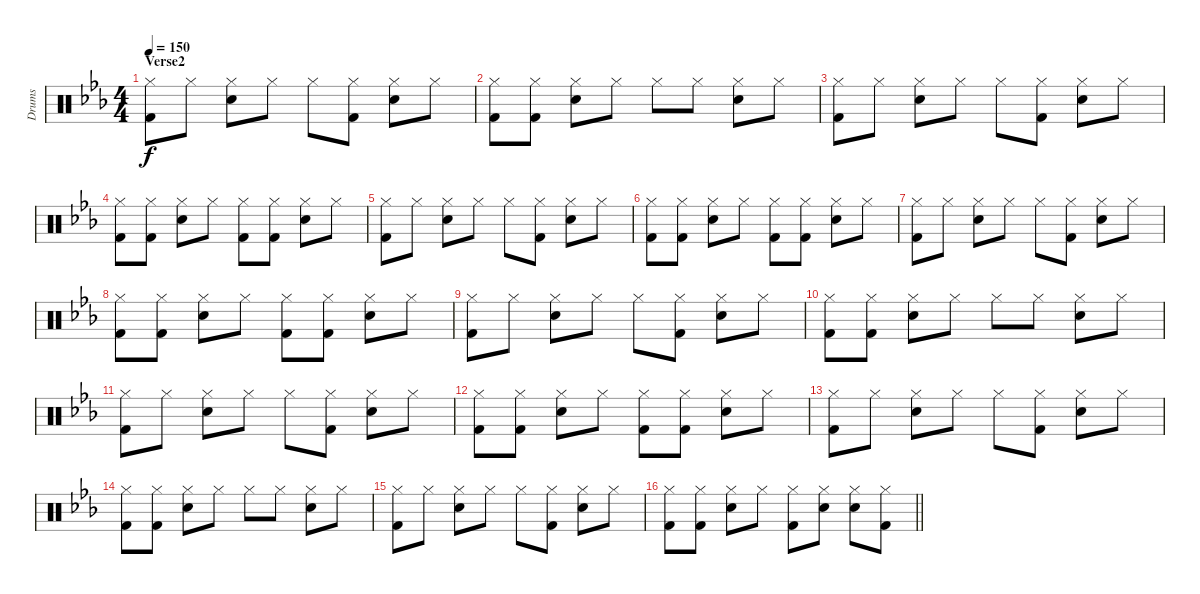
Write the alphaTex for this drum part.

\track ("Drums" "Drums") {instrument percussion}
\staff {score}
\articulation defaults
\ts (4 4)
\section ("" "Verse2")
\tempo 150
\clef neutral
\ks eb
("Hi-Hat (closed)" "Kick (hit) 2").8{dy f} "Hi-Hat (closed)".8 ("Hi-Hat (closed)" "Electric Snare (hit)").8 "Hi-Hat (closed)".8 "Hi-Hat (closed)".8 ("Hi-Hat (closed)" "Kick (hit) 2").8 ("Hi-Hat (closed)" "Electric Snare (hit)").8 "Hi-Hat (closed)".8 |
("Hi-Hat (closed)" "Kick (hit) 2").8 ("Hi-Hat (closed)" "Kick (hit) 2").8 ("Hi-Hat (closed)" "Electric Snare (hit)").8 "Hi-Hat (closed)".8 "Hi-Hat (closed)".8 "Hi-Hat (closed)".8 ("Hi-Hat (closed)" "Electric Snare (hit)").8 "Hi-Hat (closed)".8 |
("Hi-Hat (closed)" "Kick (hit) 2").8 "Hi-Hat (closed)".8 ("Hi-Hat (closed)" "Electric Snare (hit)").8 "Hi-Hat (closed)".8 "Hi-Hat (closed)".8 ("Hi-Hat (closed)" "Kick (hit) 2").8 ("Hi-Hat (closed)" "Electric Snare (hit)").8 "Hi-Hat (closed)".8 |
("Hi-Hat (closed)" "Kick (hit) 2").8 ("Hi-Hat (closed)" "Kick (hit) 2").8 ("Hi-Hat (closed)" "Electric Snare (hit)").8 "Hi-Hat (closed)".8 ("Hi-Hat (closed)" "Kick (hit) 2").8 ("Hi-Hat (closed)" "Kick (hit) 2").8 ("Hi-Hat (closed)" "Electric Snare (hit)").8 "Hi-Hat (closed)".8 |
("Hi-Hat (closed)" "Kick (hit) 2").8 "Hi-Hat (closed)".8 ("Hi-Hat (closed)" "Electric Snare (hit)").8 "Hi-Hat (closed)".8 "Hi-Hat (closed)".8 ("Hi-Hat (closed)" "Kick (hit) 2").8 ("Hi-Hat (closed)" "Electric Snare (hit)").8 "Hi-Hat (closed)".8 |
("Hi-Hat (closed)" "Kick (hit) 2").8 ("Hi-Hat (closed)" "Kick (hit) 2").8 ("Hi-Hat (closed)" "Electric Snare (hit)").8 "Hi-Hat (closed)".8 ("Hi-Hat (closed)" "Kick (hit) 2").8 ("Hi-Hat (closed)" "Kick (hit) 2").8 ("Hi-Hat (closed)" "Electric Snare (hit)").8 "Hi-Hat (closed)".8 |
("Hi-Hat (closed)" "Kick (hit) 2").8 "Hi-Hat (closed)".8 ("Hi-Hat (closed)" "Electric Snare (hit)").8 "Hi-Hat (closed)".8 "Hi-Hat (closed)".8 ("Hi-Hat (closed)" "Kick (hit) 2").8 ("Hi-Hat (closed)" "Electric Snare (hit)").8 "Hi-Hat (closed)".8 |
("Hi-Hat (closed)" "Kick (hit) 2").8 ("Hi-Hat (closed)" "Kick (hit) 2").8 ("Hi-Hat (closed)" "Electric Snare (hit)").8 "Hi-Hat (closed)".8 ("Hi-Hat (closed)" "Kick (hit) 2").8 ("Hi-Hat (closed)" "Kick (hit) 2").8 ("Hi-Hat (closed)" "Electric Snare (hit)").8 "Hi-Hat (closed)".8 |
("Hi-Hat (closed)" "Kick (hit) 2").8 "Hi-Hat (closed)".8 ("Hi-Hat (closed)" "Electric Snare (hit)").8 "Hi-Hat (closed)".8 "Hi-Hat (closed)".8 ("Hi-Hat (closed)" "Kick (hit) 2").8 ("Hi-Hat (closed)" "Electric Snare (hit)").8 "Hi-Hat (closed)".8 |
("Hi-Hat (closed)" "Kick (hit) 2").8 ("Hi-Hat (closed)" "Kick (hit) 2").8 ("Hi-Hat (closed)" "Electric Snare (hit)").8 "Hi-Hat (closed)".8 "Hi-Hat (closed)".8 "Hi-Hat (closed)".8 ("Hi-Hat (closed)" "Electric Snare (hit)").8 "Hi-Hat (closed)".8 |
("Hi-Hat (closed)" "Kick (hit) 2").8 "Hi-Hat (closed)".8 ("Hi-Hat (closed)" "Electric Snare (hit)").8 "Hi-Hat (closed)".8 "Hi-Hat (closed)".8 ("Hi-Hat (closed)" "Kick (hit) 2").8 ("Hi-Hat (closed)" "Electric Snare (hit)").8 "Hi-Hat (closed)".8 |
("Hi-Hat (closed)" "Kick (hit) 2").8 ("Hi-Hat (closed)" "Kick (hit) 2").8 ("Hi-Hat (closed)" "Electric Snare (hit)").8 "Hi-Hat (closed)".8 ("Hi-Hat (closed)" "Kick (hit) 2").8 ("Hi-Hat (closed)" "Kick (hit) 2").8 ("Hi-Hat (closed)" "Electric Snare (hit)").8 "Hi-Hat (closed)".8 |
("Hi-Hat (closed)" "Kick (hit) 2").8 "Hi-Hat (closed)".8 ("Hi-Hat (closed)" "Electric Snare (hit)").8 "Hi-Hat (closed)".8 "Hi-Hat (closed)".8 ("Hi-Hat (closed)" "Kick (hit) 2").8 ("Hi-Hat (closed)" "Electric Snare (hit)").8 "Hi-Hat (closed)".8 |
("Hi-Hat (closed)" "Kick (hit) 2").8 ("Hi-Hat (closed)" "Kick (hit) 2").8 ("Hi-Hat (closed)" "Electric Snare (hit)").8 "Hi-Hat (closed)".8 "Hi-Hat (closed)".8 "Hi-Hat (closed)".8 ("Hi-Hat (closed)" "Electric Snare (hit)").8 "Hi-Hat (closed)".8 |
("Hi-Hat (closed)" "Kick (hit) 2").8 "Hi-Hat (closed)".8 ("Hi-Hat (closed)" "Electric Snare (hit)").8 "Hi-Hat (closed)".8 "Hi-Hat (closed)".8 ("Hi-Hat (closed)" "Kick (hit) 2").8 ("Hi-Hat (closed)" "Electric Snare (hit)").8 "Hi-Hat (closed)".8 |
\barLineRight lightlight
("Hi-Hat (closed)" "Kick (hit) 2").8 ("Hi-Hat (closed)" "Kick (hit) 2").8 ("Hi-Hat (closed)" "Electric Snare (hit)").8 "Hi-Hat (closed)".8 ("Hi-Hat (closed)" "Kick (hit) 2").8 ("Hi-Hat (closed)" "Electric Snare (hit)").8 ("Hi-Hat (closed)" "Electric Snare (hit)").8 ("Hi-Hat (closed)" "Kick (hit) 2").8
